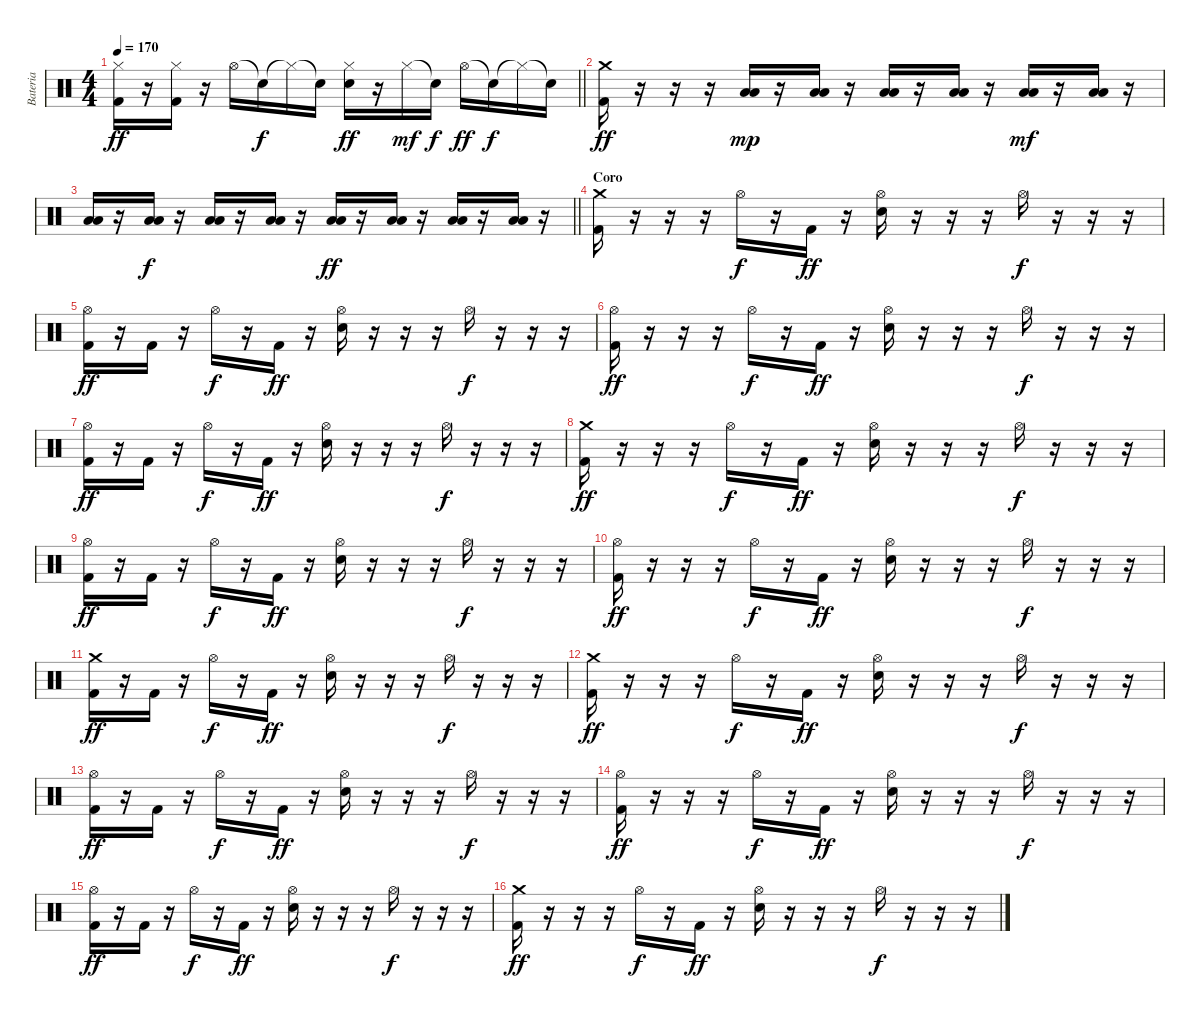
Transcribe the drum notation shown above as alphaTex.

\track ("Bateria" "Bateria") {instrument percussion}
\staff {score}
\articulation defaults
\ts (4 4)
\tempo 170
\clef neutral
\barLineRight lightlight
\ks c
("Hi-Hat (closed)" "Kick (hit) 2").16{dy ff} r.16 ("Hi-Hat (closed)" "Kick (hit) 2").16 r.16 "Hi-Hat (open)".16 "Snare (hit)"{t}.16{dy f} "Hi-Hat (closed)"{t}.16 "Snare (hit)"{t}.16 ("Hi-Hat (closed)" "Electric Snare (hit)").16{dy ff} r.16 "Hi-Hat (closed)".16{dy mf} "Snare (hit)"{t}.16{dy f} "Hi-Hat (open)".16{dy ff} "Snare (hit)"{t}.16{dy f} "Hi-Hat (closed)"{t}.16 "Snare (hit)"{t}.16 |
("Crash medium (hit)" "Kick (hit) 2").16{dy ff} r.16 r.16 r.16 ("Low Tom (hit)" "Low Floor Tom (hit)").16{dy mp} r.16 ("Low Tom (hit)" "Low Floor Tom (hit)").16 r.16 ("Low Tom (hit)" "Low Floor Tom (hit)").16 r.16 ("Low Tom (hit)" "Low Floor Tom (hit)").16 r.16 ("Low Tom (hit)" "Low Floor Tom (hit)").16{dy mf} r.16 ("Low Tom (hit)" "Low Floor Tom (hit)").16 r.16 |
\barLineRight lightlight
("Low Tom (hit)" "Low Floor Tom (hit)").16 r.16 ("Low Tom (hit)" "Low Floor Tom (hit)").16{dy f} r.16 ("Low Tom (hit)" "Low Floor Tom (hit)").16 r.16 ("Low Tom (hit)" "Low Floor Tom (hit)").16 r.16 ("Low Tom (hit)" "Low Floor Tom (hit)").16{dy ff} r.16 ("Low Tom (hit)" "Low Floor Tom (hit)").16 r.16 ("Low Tom (hit)" "Low Floor Tom (hit)").16 r.16 ("Low Tom (hit)" "Low Floor Tom (hit)").16 r.16 |
\section ("" "Coro")
("Crash medium (hit)" "Kick (hit) 2").16 r.16 r.16 r.16 "Hi-Hat (open)".16{dy f} r.16 "Kick (hit) 2".16{dy ff} r.16 ("Hi-Hat (open)" "Electric Snare (hit)").16 r.16 r.16 r.16 "Hi-Hat (open)".16{dy f} r.16 r.16 r.16 |
("Hi-Hat (open)" "Kick (hit) 2").16{dy ff} r.16 "Kick (hit) 2".16 r.16 "Hi-Hat (open)".16{dy f} r.16 "Kick (hit) 2".16{dy ff} r.16 ("Hi-Hat (open)" "Electric Snare (hit)").16 r.16 r.16 r.16 "Hi-Hat (open)".16{dy f} r.16 r.16 r.16 |
("Hi-Hat (open)" "Kick (hit) 2").16{dy ff} r.16 r.16 r.16 "Hi-Hat (open)".16{dy f} r.16 "Kick (hit) 2".16{dy ff} r.16 ("Hi-Hat (open)" "Electric Snare (hit)").16 r.16 r.16 r.16 "Hi-Hat (open)".16{dy f} r.16 r.16 r.16 |
("Hi-Hat (open)" "Kick (hit) 2").16{dy ff} r.16 "Kick (hit) 2".16 r.16 "Hi-Hat (open)".16{dy f} r.16 "Kick (hit) 2".16{dy ff} r.16 ("Hi-Hat (open)" "Electric Snare (hit)").16 r.16 r.16 r.16 "Hi-Hat (open)".16{dy f} r.16 r.16 r.16 |
("Crash medium (hit)" "Kick (hit) 2").16{dy ff} r.16 r.16 r.16 "Hi-Hat (open)".16{dy f} r.16 "Kick (hit) 2".16{dy ff} r.16 ("Hi-Hat (open)" "Electric Snare (hit)").16 r.16 r.16 r.16 "Hi-Hat (open)".16{dy f} r.16 r.16 r.16 |
("Hi-Hat (open)" "Kick (hit) 2").16{dy ff} r.16 "Kick (hit) 2".16 r.16 "Hi-Hat (open)".16{dy f} r.16 "Kick (hit) 2".16{dy ff} r.16 ("Hi-Hat (open)" "Electric Snare (hit)").16 r.16 r.16 r.16 "Hi-Hat (open)".16{dy f} r.16 r.16 r.16 |
("Hi-Hat (open)" "Kick (hit) 2").16{dy ff} r.16 r.16 r.16 "Hi-Hat (open)".16{dy f} r.16 "Kick (hit) 2".16{dy ff} r.16 ("Hi-Hat (open)" "Electric Snare (hit)").16 r.16 r.16 r.16 "Hi-Hat (open)".16{dy f} r.16 r.16 r.16 |
("Crash medium (hit)" "Kick (hit) 2").16{dy ff} r.16 "Kick (hit) 2".16 r.16 "Hi-Hat (open)".16{dy f} r.16 "Kick (hit) 2".16{dy ff} r.16 ("Hi-Hat (open)" "Electric Snare (hit)").16 r.16 r.16 r.16 "Hi-Hat (open)".16{dy f} r.16 r.16 r.16 |
("Crash medium (hit)" "Kick (hit) 2").16{dy ff} r.16 r.16 r.16 "Hi-Hat (open)".16{dy f} r.16 "Kick (hit) 2".16{dy ff} r.16 ("Hi-Hat (open)" "Electric Snare (hit)").16 r.16 r.16 r.16 "Hi-Hat (open)".16{dy f} r.16 r.16 r.16 |
("Hi-Hat (open)" "Kick (hit) 2").16{dy ff} r.16 "Kick (hit) 2".16 r.16 "Hi-Hat (open)".16{dy f} r.16 "Kick (hit) 2".16{dy ff} r.16 ("Hi-Hat (open)" "Electric Snare (hit)").16 r.16 r.16 r.16 "Hi-Hat (open)".16{dy f} r.16 r.16 r.16 |
("Hi-Hat (open)" "Kick (hit) 2").16{dy ff} r.16 r.16 r.16 "Hi-Hat (open)".16{dy f} r.16 "Kick (hit) 2".16{dy ff} r.16 ("Hi-Hat (open)" "Electric Snare (hit)").16 r.16 r.16 r.16 "Hi-Hat (open)".16{dy f} r.16 r.16 r.16 |
("Hi-Hat (open)" "Kick (hit) 2").16{dy ff} r.16 "Kick (hit) 2".16 r.16 "Hi-Hat (open)".16{dy f} r.16 "Kick (hit) 2".16{dy ff} r.16 ("Hi-Hat (open)" "Electric Snare (hit)").16 r.16 r.16 r.16 "Hi-Hat (open)".16{dy f} r.16 r.16 r.16 |
("Crash medium (hit)" "Kick (hit) 2").16{dy ff} r.16 r.16 r.16 "Hi-Hat (open)".16{dy f} r.16 "Kick (hit) 2".16{dy ff} r.16 ("Hi-Hat (open)" "Electric Snare (hit)").16 r.16 r.16 r.16 "Hi-Hat (open)".16{dy f} r.16 r.16 r.16
